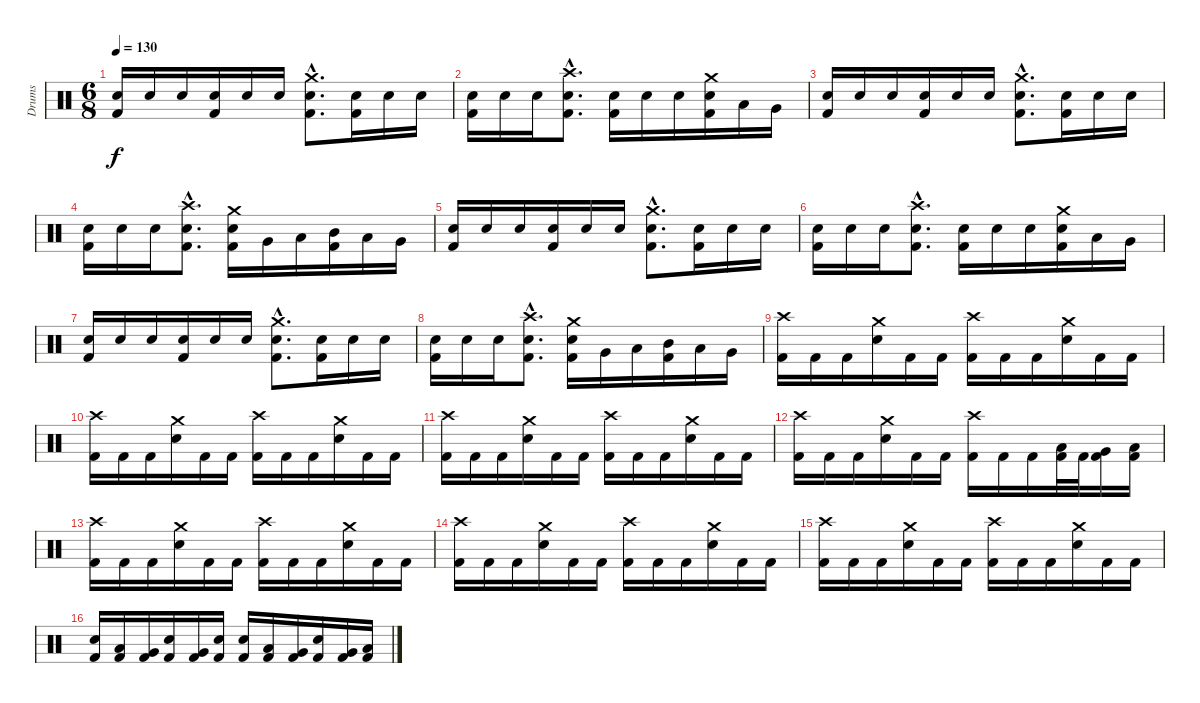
\track ("Drums" "Drums") {instrument percussion}
\staff {score}
\articulation defaults
\ts (6 8)
\tempo 130
\clef neutral
\ks c
("Electric Snare (hit)" "Kick (hit) 2").16{dy f} "Electric Snare (hit)".16 "Electric Snare (hit)".16 ("Electric Snare (hit)" "Kick (hit) 2").16 "Electric Snare (hit)".16 "Electric Snare (hit)".16 ("Crash medium (hit)"{hac} "Electric Snare (hit)"{hac} "Kick (hit) 2"{hac}).8{d} ("Electric Snare (hit)" "Kick (hit) 2").16 "Electric Snare (hit)".16 "Electric Snare (hit)".16 |
("Electric Snare (hit)" "Kick (hit) 2").16 "Electric Snare (hit)".16 "Electric Snare (hit)".16 ("Crash high (hit)"{hac} "Electric Snare (hit)"{hac} "Kick (hit) 2"{hac}).8{d} ("Electric Snare (hit)" "Kick (hit) 2").16 "Electric Snare (hit)".16 "Electric Snare (hit)".16 ("Crash medium (hit)" "Electric Snare (hit)" "Kick (hit) 2").16 "Low Tom (hit)".16 "Very Low Tom (hit)".16 |
("Electric Snare (hit)" "Kick (hit) 2").16 "Electric Snare (hit)".16 "Electric Snare (hit)".16 ("Electric Snare (hit)" "Kick (hit) 2").16 "Electric Snare (hit)".16 "Electric Snare (hit)".16 ("Crash medium (hit)"{hac} "Electric Snare (hit)"{hac} "Kick (hit) 2"{hac}).8{d} ("Electric Snare (hit)" "Kick (hit) 2").16 "Electric Snare (hit)".16 "Electric Snare (hit)".16 |
("Electric Snare (hit)" "Kick (hit) 2").16 "Electric Snare (hit)".16 "Electric Snare (hit)".16 ("Crash high (hit)"{hac} "Electric Snare (hit)"{hac} "Kick (hit) 2"{hac}).8{d} ("Crash medium (hit)" "Electric Snare (hit)" "Kick (hit) 2").16 "Very Low Tom (hit)".16 "Low Tom (hit)".16 ("Mid Tom (hit)" "Kick (hit) 2").16 "Low Tom (hit)".16 "Very Low Tom (hit)".16 |
("Electric Snare (hit)" "Kick (hit) 2").16 "Electric Snare (hit)".16 "Electric Snare (hit)".16 ("Electric Snare (hit)" "Kick (hit) 2").16 "Electric Snare (hit)".16 "Electric Snare (hit)".16 ("Crash medium (hit)"{hac} "Electric Snare (hit)"{hac} "Kick (hit) 2"{hac}).8{d} ("Electric Snare (hit)" "Kick (hit) 2").16 "Electric Snare (hit)".16 "Electric Snare (hit)".16 |
("Electric Snare (hit)" "Kick (hit) 2").16 "Electric Snare (hit)".16 "Electric Snare (hit)".16 ("Crash high (hit)"{hac} "Electric Snare (hit)"{hac} "Kick (hit) 2"{hac}).8{d} ("Electric Snare (hit)" "Kick (hit) 2").16 "Electric Snare (hit)".16 "Electric Snare (hit)".16 ("Crash medium (hit)" "Electric Snare (hit)" "Kick (hit) 2").16 "Low Tom (hit)".16 "Very Low Tom (hit)".16 |
("Electric Snare (hit)" "Kick (hit) 2").16 "Electric Snare (hit)".16 "Electric Snare (hit)".16 ("Electric Snare (hit)" "Kick (hit) 2").16 "Electric Snare (hit)".16 "Electric Snare (hit)".16 ("Crash medium (hit)"{hac} "Electric Snare (hit)"{hac} "Kick (hit) 2"{hac}).8{d} ("Electric Snare (hit)" "Kick (hit) 2").16 "Electric Snare (hit)".16 "Electric Snare (hit)".16 |
("Electric Snare (hit)" "Kick (hit) 2").16 "Electric Snare (hit)".16 "Electric Snare (hit)".16 ("Crash high (hit)"{hac} "Electric Snare (hit)"{hac} "Kick (hit) 2"{hac}).8{d} ("Crash medium (hit)" "Electric Snare (hit)" "Kick (hit) 2").16 "Very Low Tom (hit)".16 "Low Tom (hit)".16 ("Mid Tom (hit)" "Kick (hit) 2").16 "Low Tom (hit)".16 "Very Low Tom (hit)".16 |
\section ("" "")
("Crash high (hit)" "Kick (hit) 2").16 "Kick (hit) 2".16 "Kick (hit) 2".16 ("Crash medium (hit)" "Electric Snare (hit)").16 "Kick (hit) 2".16 "Kick (hit) 2".16 ("Crash high (hit)" "Kick (hit) 2").16 "Kick (hit) 2".16 "Kick (hit) 2".16 ("Crash medium (hit)" "Electric Snare (hit)").16 "Kick (hit) 2".16 "Kick (hit) 2".16 |
("Crash high (hit)" "Kick (hit) 2").16 "Kick (hit) 2".16 "Kick (hit) 2".16 ("Crash medium (hit)" "Electric Snare (hit)").16 "Kick (hit) 2".16 "Kick (hit) 2".16 ("Crash high (hit)" "Kick (hit) 2").16 "Kick (hit) 2".16 "Kick (hit) 2".16 ("Crash medium (hit)" "Electric Snare (hit)").16 "Kick (hit) 2".16 "Kick (hit) 2".16 |
("Crash high (hit)" "Kick (hit) 2").16 "Kick (hit) 2".16 "Kick (hit) 2".16 ("Crash medium (hit)" "Electric Snare (hit)").16 "Kick (hit) 2".16 "Kick (hit) 2".16 ("Crash high (hit)" "Kick (hit) 2").16 "Kick (hit) 2".16 "Kick (hit) 2".16 ("Crash medium (hit)" "Electric Snare (hit)").16 "Kick (hit) 2".16 "Kick (hit) 2".16 |
("Crash high (hit)" "Kick (hit) 2").16 "Kick (hit) 2".16 "Kick (hit) 2".16 ("Crash medium (hit)" "Electric Snare (hit)").16 "Kick (hit) 2".16 "Kick (hit) 2".16 ("Crash high (hit)" "Kick (hit) 2").16 "Kick (hit) 2".16 "Kick (hit) 2".16 ("Low Tom (hit)" "Kick (hit) 2").32 "Kick (hit) 2".32 ("Very Low Tom (hit)" "Kick (hit) 2").16 ("Low Floor Tom (hit)" "Kick (hit) 2").16 |
("Crash high (hit)" "Kick (hit) 2").16 "Kick (hit) 2".16 "Kick (hit) 2".16 ("Crash medium (hit)" "Electric Snare (hit)").16 "Kick (hit) 2".16 "Kick (hit) 2".16 ("Crash high (hit)" "Kick (hit) 2").16 "Kick (hit) 2".16 "Kick (hit) 2".16 ("Crash medium (hit)" "Electric Snare (hit)").16 "Kick (hit) 2".16 "Kick (hit) 2".16 |
("Crash high (hit)" "Kick (hit) 2").16 "Kick (hit) 2".16 "Kick (hit) 2".16 ("Crash medium (hit)" "Electric Snare (hit)").16 "Kick (hit) 2".16 "Kick (hit) 2".16 ("Crash high (hit)" "Kick (hit) 2").16 "Kick (hit) 2".16 "Kick (hit) 2".16 ("Crash medium (hit)" "Electric Snare (hit)").16 "Kick (hit) 2".16 "Kick (hit) 2".16 |
("Crash high (hit)" "Kick (hit) 2").16 "Kick (hit) 2".16 "Kick (hit) 2".16 ("Crash medium (hit)" "Electric Snare (hit)").16 "Kick (hit) 2".16 "Kick (hit) 2".16 ("Crash high (hit)" "Kick (hit) 2").16 "Kick (hit) 2".16 "Kick (hit) 2".16 ("Crash medium (hit)" "Electric Snare (hit)").16 "Kick (hit) 2".16 "Kick (hit) 2".16 |
("Electric Snare (hit)" "Kick (hit) 2").16 ("Low Tom (hit)" "Kick (hit) 2").16 ("Very Low Tom (hit)" "Kick (hit) 2").16 ("Electric Snare (hit)" "Kick (hit) 2").16 ("Very Low Tom (hit)" "Kick (hit) 2").16 ("Electric Snare (hit)" "Kick (hit) 2").16 ("Electric Snare (hit)" "Kick (hit) 2").16 ("Low Tom (hit)" "Kick (hit) 2").16 ("Very Low Tom (hit)" "Kick (hit) 2").16 ("Electric Snare (hit)" "Kick (hit) 2").16 ("Very Low Tom (hit)" "Kick (hit) 2").16 ("Low Floor Tom (hit)" "Kick (hit) 2").16
